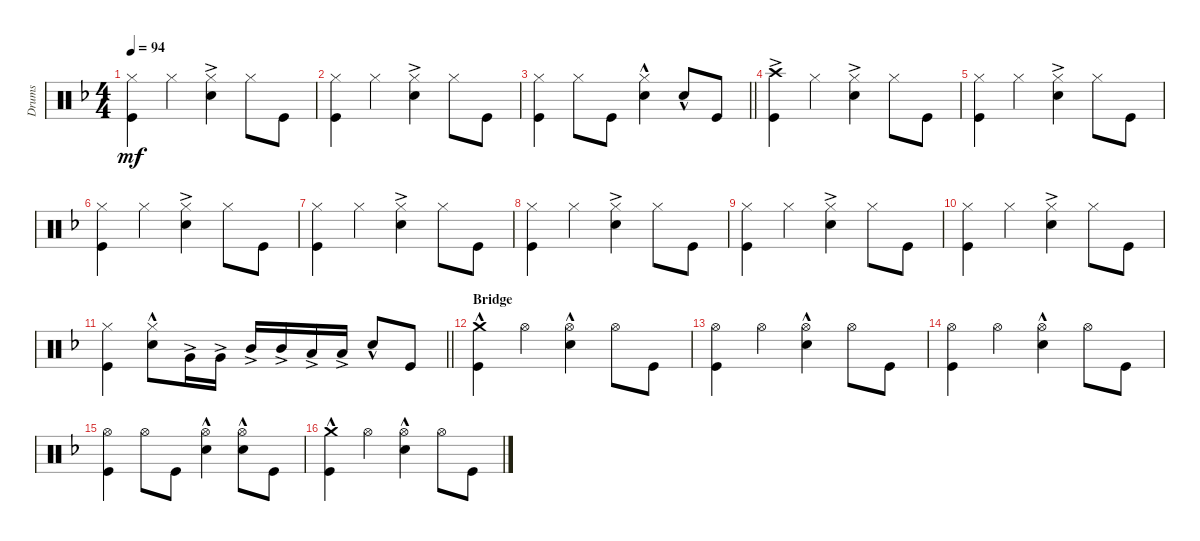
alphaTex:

\track ("Drums" "Drums") {instrument percussion}
\staff {score}
\articulation defaults
\ts (4 4)
\tempo 94
\clef neutral
\ks dminor
("Hi-Hat (closed)" "Kick (hit)").4{dy mf} "Hi-Hat (closed)".4 ("Hi-Hat (closed)" "Snare (hit) 2"{ac}).4 "Hi-Hat (closed)".8 "Kick (hit)".8 |
("Hi-Hat (closed)" "Kick (hit)").4 "Hi-Hat (closed)".4 ("Hi-Hat (closed)" "Snare (hit) 2"{ac}).4 "Hi-Hat (closed)".8 "Kick (hit)".8 |
\barLineRight lightlight
("Hi-Hat (closed)" "Kick (hit)").4 "Hi-Hat (closed)".8 "Kick (hit)".8 ("Hi-Hat (closed)" "Snare (hit) 2"{hac}).4 "Snare (hit) 2"{hac}.8 "Kick (hit)".8 |
("Kick (hit)" "Crash high (hit)"{ac}).4 "Hi-Hat (closed)".4 ("Hi-Hat (closed)" "Snare (hit) 2"{ac}).4 "Hi-Hat (closed)".8 "Kick (hit)".8 |
("Hi-Hat (closed)" "Kick (hit)").4 "Hi-Hat (closed)".4 ("Hi-Hat (closed)" "Snare (hit) 2"{ac}).4 "Hi-Hat (closed)".8 "Kick (hit)".8 |
("Hi-Hat (closed)" "Kick (hit)").4 "Hi-Hat (closed)".4 ("Hi-Hat (closed)" "Snare (hit) 2"{ac}).4 "Hi-Hat (closed)".8 "Kick (hit)".8 |
("Hi-Hat (closed)" "Kick (hit)").4 "Hi-Hat (closed)".4 ("Hi-Hat (closed)" "Snare (hit) 2"{ac}).4 "Hi-Hat (closed)".8 "Kick (hit)".8 |
("Hi-Hat (closed)" "Kick (hit)").4 "Hi-Hat (closed)".4 ("Hi-Hat (closed)" "Snare (hit) 2"{ac}).4 "Hi-Hat (closed)".8 "Kick (hit)".8 |
("Hi-Hat (closed)" "Kick (hit)").4 "Hi-Hat (closed)".4 ("Hi-Hat (closed)" "Snare (hit) 2"{ac}).4 "Hi-Hat (closed)".8 "Kick (hit)".8 |
("Hi-Hat (closed)" "Kick (hit)").4 "Hi-Hat (closed)".4 ("Hi-Hat (closed)" "Snare (hit) 2"{ac}).4 "Hi-Hat (closed)".8 "Kick (hit)".8 |
\barLineRight lightlight
("Hi-Hat (closed)" "Kick (hit)").4 ("Hi-Hat (closed)" "Snare (hit) 2"{hac}).8 "Very Low Tom (hit)"{ac}.16 "Very Low Tom (hit)"{ac}.16 "Mid Tom (hit)"{ac}.16 "Mid Tom (hit)"{ac}.16 "Low Tom (hit)"{ac}.16 "Low Tom (hit)"{ac}.16 "Snare (hit) 2"{hac}.8 "Kick (hit)".8 |
\section ("" "Bridge")
("Kick (hit)" "Crash medium (hit)"{hac}).4 "Hi-Hat (open)".4 ("Hi-Hat (open)"{hac} "Snare (hit) 2"{hac}).4 "Hi-Hat (open)".8 "Kick (hit)".8 |
("Kick (hit)" "Hi-Hat (open)").4 "Hi-Hat (open)".4 ("Hi-Hat (open)"{hac} "Snare (hit) 2"{hac}).4 "Hi-Hat (open)".8 "Kick (hit)".8 |
("Kick (hit)" "Hi-Hat (open)").4 "Hi-Hat (open)".4 ("Hi-Hat (open)"{hac} "Snare (hit) 2"{hac}).4 "Hi-Hat (open)".8 "Kick (hit)".8 |
("Kick (hit)" "Hi-Hat (open)").4 "Hi-Hat (open)".8 "Kick (hit)".8 ("Hi-Hat (open)"{hac} "Snare (hit) 2"{hac}).4 ("Hi-Hat (open)" "Snare (hit) 2"{hac}).8 "Kick (hit)".8 |
("Kick (hit)" "Crash medium (hit)"{hac}).4 "Hi-Hat (open)".4 ("Hi-Hat (open)"{hac} "Snare (hit) 2"{hac}).4 "Hi-Hat (open)".8 "Kick (hit)".8
